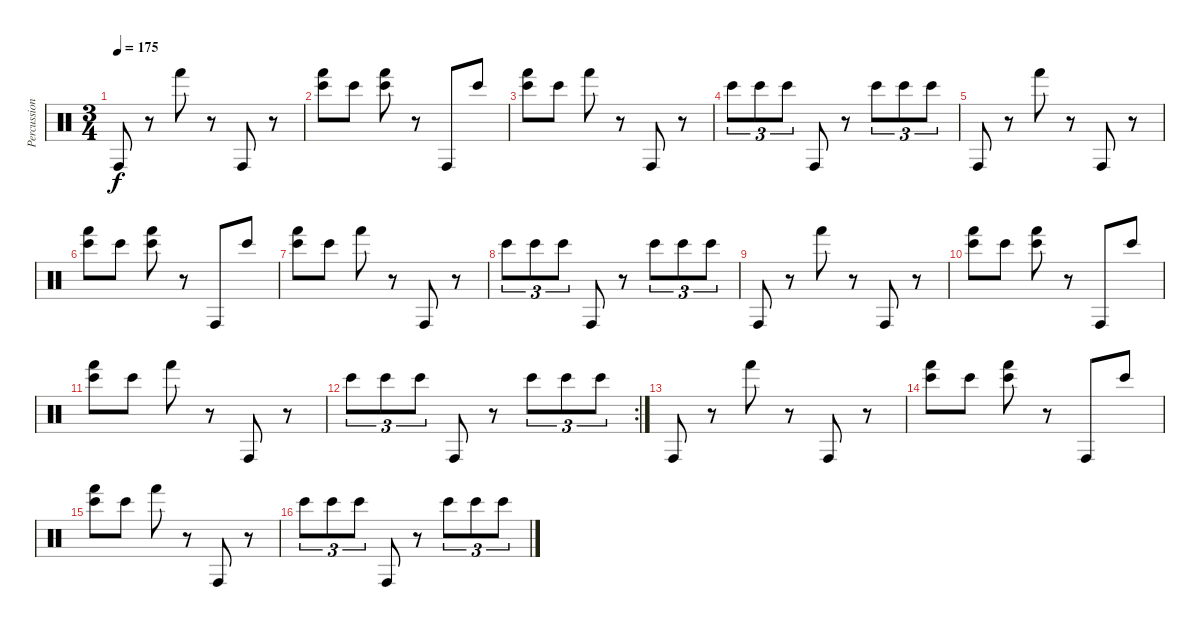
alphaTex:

\track ("Percussion" "Percussion") {instrument percussion}
\staff {score}
\articulation defaults
\ts (3 4)
\tempo 175
\clef neutral
\ks c "Conga high (hit)".8{dy f}
r.8 "Hand (hit)".8 r.8 "Conga high (hit)".8 r.8 |
("Hand (hit)" "Bongo High (hit)").8 "Bongo High (hit)".8 ("Hand (hit)" "Bongo High (hit)").8 r.8 "Conga high (hit)".8 "Bongo High (hit)".8 |
("Hand (hit)" "Bongo High (hit)").8 "Bongo High (hit)".8 "Hand (hit)".8 r.8 "Conga high (hit)".8 r.8 |
"Bongo High (hit)".8{tu (3 2)} "Bongo High (hit)".8{tu (3 2)} "Bongo High (hit)".8{tu (3 2)} "Conga high (hit)".8 r.8 "Bongo High (hit)".8{tu (3 2)} "Bongo High (hit)".8{tu (3 2)} "Bongo High (hit)".8{tu (3 2)} |
"Conga high (hit)".8 r.8 "Hand (hit)".8 r.8 "Conga high (hit)".8 r.8 |
("Hand (hit)" "Bongo High (hit)").8 "Bongo High (hit)".8 ("Hand (hit)" "Bongo High (hit)").8 r.8 "Conga high (hit)".8 "Bongo High (hit)".8 |
("Hand (hit)" "Bongo High (hit)").8 "Bongo High (hit)".8 "Hand (hit)".8 r.8 "Conga high (hit)".8 r.8 |
"Bongo High (hit)".8{tu (3 2)} "Bongo High (hit)".8{tu (3 2)} "Bongo High (hit)".8{tu (3 2)} "Conga high (hit)".8 r.8 "Bongo High (hit)".8{tu (3 2)} "Bongo High (hit)".8{tu (3 2)} "Bongo High (hit)".8{tu (3 2)} |
"Conga high (hit)".8 r.8 "Hand (hit)".8 r.8 "Conga high (hit)".8 r.8 |
("Hand (hit)" "Bongo High (hit)").8 "Bongo High (hit)".8 ("Hand (hit)" "Bongo High (hit)").8 r.8 "Conga high (hit)".8 "Bongo High (hit)".8 |
("Hand (hit)" "Bongo High (hit)").8 "Bongo High (hit)".8 "Hand (hit)".8 r.8 "Conga high (hit)".8 r.8 |
\rc 2 "Bongo High (hit)".8{tu (3 2)} "Bongo High (hit)".8{tu (3 2)} "Bongo High (hit)".8{tu (3 2)} "Conga high (hit)".8
r.8 "Bongo High (hit)".8{tu (3 2)} "Bongo High (hit)".8{tu (3 2)} "Bongo High (hit)".8{tu (3 2)} |
"Conga high (hit)".8 r.8 "Hand (hit)".8 r.8 "Conga high (hit)".8 r.8 |
("Hand (hit)" "Bongo High (hit)").8 "Bongo High (hit)".8 ("Hand (hit)" "Bongo High (hit)").8 r.8 "Conga high (hit)".8 "Bongo High (hit)".8 |
("Hand (hit)" "Bongo High (hit)").8 "Bongo High (hit)".8 "Hand (hit)".8 r.8 "Conga high (hit)".8 r.8 |
"Bongo High (hit)".8{tu (3 2)} "Bongo High (hit)".8{tu (3 2)} "Bongo High (hit)".8{tu (3 2)} "Conga high (hit)".8 r.8 "Bongo High (hit)".8{tu (3 2)} "Bongo High (hit)".8{tu (3 2)} "Bongo High (hit)".8{tu (3 2)}
